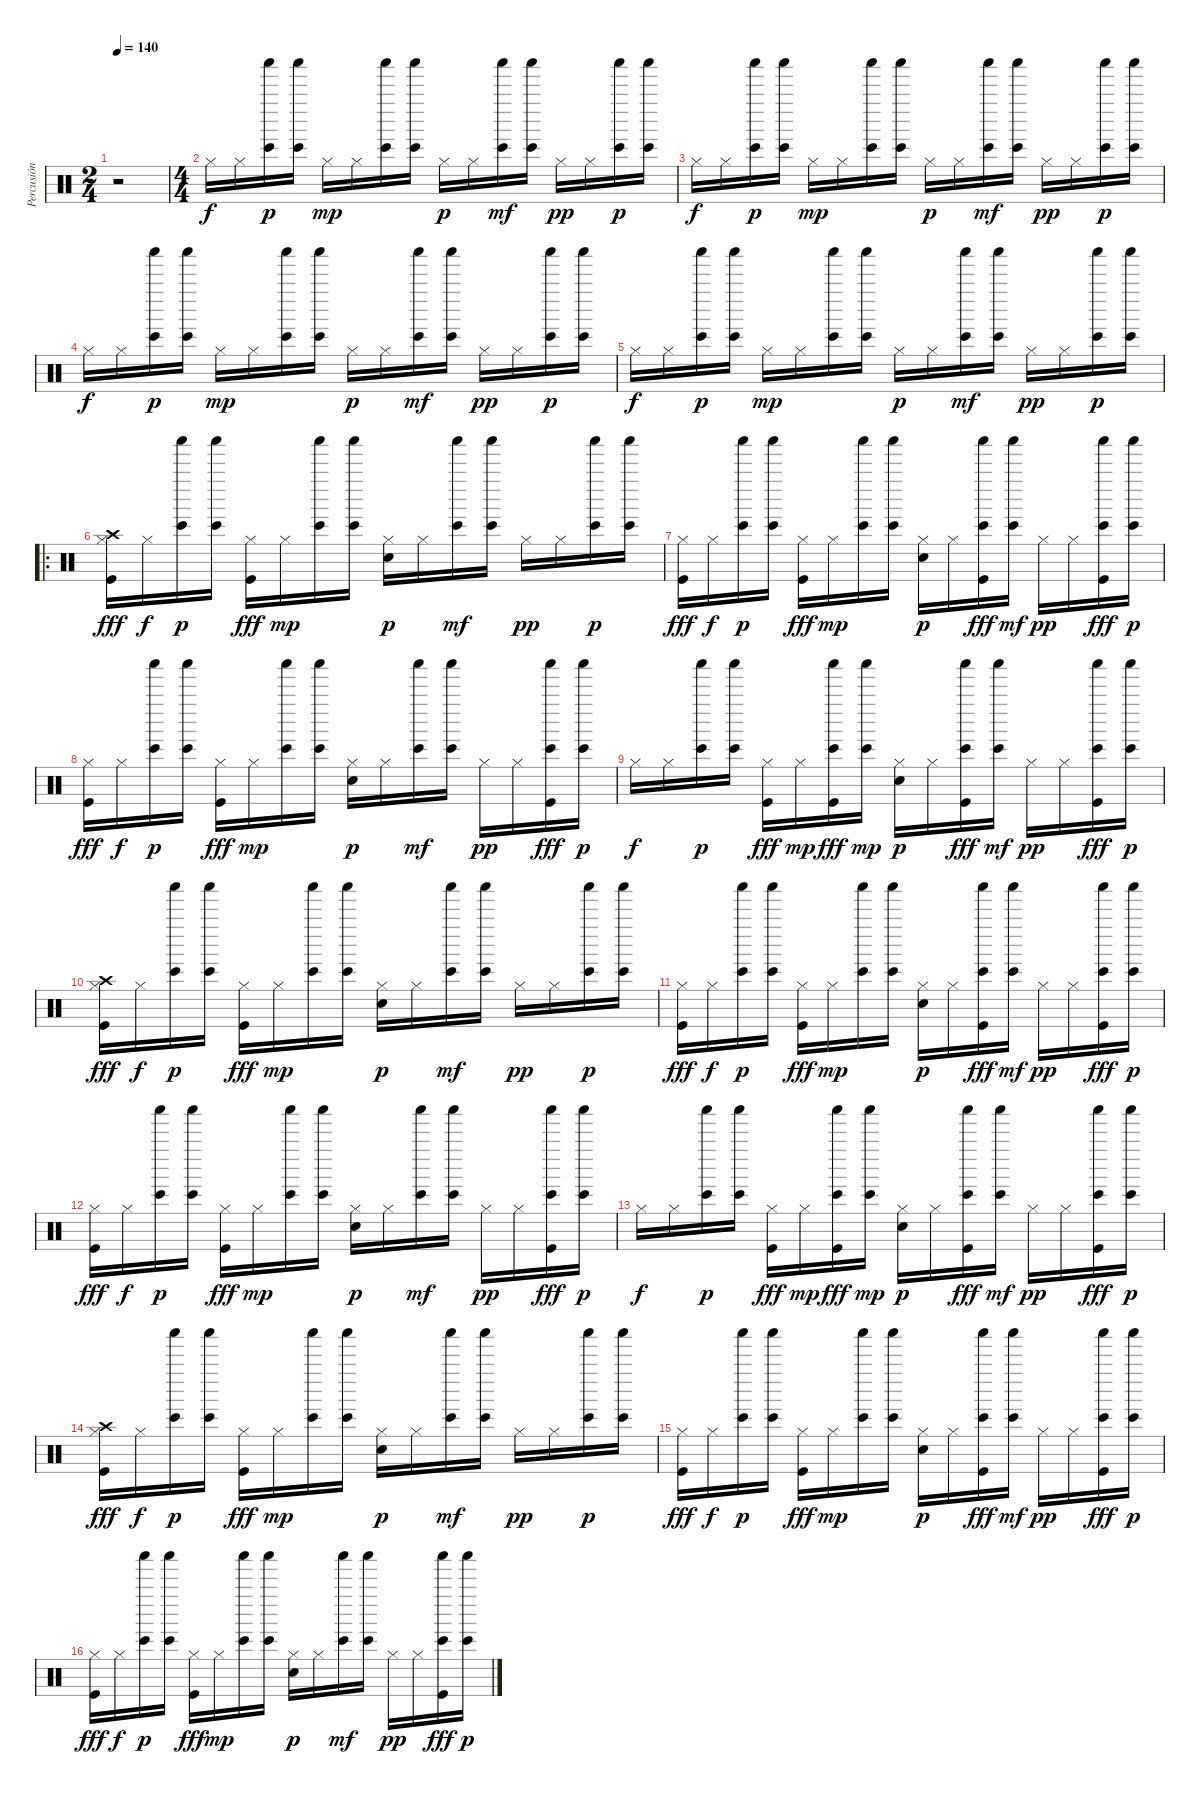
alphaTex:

\track ("Percusión" "Percusión") {instrument percussion}
\staff {score}
\articulation defaults
\ts (2 4)
\tempo 140
\clef neutral
\ks c
r.2{dy f} |
\ts (4 4)
"Hi-Hat (closed)".16{balance 8} "Hi-Hat (closed)".16 ("Bongo High (hit)" "Shaker (hit)").16{dy p balance 5} ("Bongo High (hit)" "Shaker (hit)").16 "Hi-Hat (closed)".16{dy mp balance 8} "Hi-Hat (closed)".16 ("Bongo High (hit)" "Shaker (hit)").16{balance 6} ("Bongo High (hit)" "Shaker (hit)").16 "Hi-Hat (closed)".16{dy p balance 8} "Hi-Hat (closed)".16 ("Bongo High (hit)" "Shaker (hit)").16{dy mf balance 10} ("Bongo High (hit)" "Shaker (hit)").16 "Hi-Hat (closed)".16{dy pp balance 8} "Hi-Hat (closed)".16 ("Bongo High (hit)" "Shaker (hit)").16{dy p balance 11} ("Bongo High (hit)" "Shaker (hit)").16 |
"Hi-Hat (closed)".16{dy f balance 8} "Hi-Hat (closed)".16 ("Bongo High (hit)" "Shaker (hit)").16{dy p balance 5} ("Bongo High (hit)" "Shaker (hit)").16 "Hi-Hat (closed)".16{dy mp balance 8} "Hi-Hat (closed)".16 ("Bongo High (hit)" "Shaker (hit)").16{balance 6} ("Bongo High (hit)" "Shaker (hit)").16 "Hi-Hat (closed)".16{dy p balance 8} "Hi-Hat (closed)".16 ("Bongo High (hit)" "Shaker (hit)").16{dy mf balance 10} ("Bongo High (hit)" "Shaker (hit)").16 "Hi-Hat (closed)".16{dy pp balance 8} "Hi-Hat (closed)".16 ("Bongo High (hit)" "Shaker (hit)").16{dy p balance 11} ("Bongo High (hit)" "Shaker (hit)").16 |
"Hi-Hat (closed)".16{dy f balance 8} "Hi-Hat (closed)".16 ("Bongo High (hit)" "Shaker (hit)").16{dy p balance 5} ("Bongo High (hit)" "Shaker (hit)").16 "Hi-Hat (closed)".16{dy mp balance 8} "Hi-Hat (closed)".16 ("Bongo High (hit)" "Shaker (hit)").16{balance 6} ("Bongo High (hit)" "Shaker (hit)").16 "Hi-Hat (closed)".16{dy p balance 8} "Hi-Hat (closed)".16 ("Bongo High (hit)" "Shaker (hit)").16{dy mf balance 10} ("Bongo High (hit)" "Shaker (hit)").16 "Hi-Hat (closed)".16{dy pp balance 8} "Hi-Hat (closed)".16 ("Bongo High (hit)" "Shaker (hit)").16{dy p balance 11} ("Bongo High (hit)" "Shaker (hit)").16 |
"Hi-Hat (closed)".16{dy f balance 8} "Hi-Hat (closed)".16 ("Bongo High (hit)" "Shaker (hit)").16{dy p balance 5} ("Bongo High (hit)" "Shaker (hit)").16 "Hi-Hat (closed)".16{dy mp balance 8} "Hi-Hat (closed)".16 ("Bongo High (hit)" "Shaker (hit)").16{balance 6} ("Bongo High (hit)" "Shaker (hit)").16 "Hi-Hat (closed)".16{dy p balance 8} "Hi-Hat (closed)".16 ("Bongo High (hit)" "Shaker (hit)").16{dy mf balance 10} ("Bongo High (hit)" "Shaker (hit)").16 "Hi-Hat (closed)".16{dy pp balance 8} "Hi-Hat (closed)".16 ("Bongo High (hit)" "Shaker (hit)").16{dy p balance 11} ("Bongo High (hit)" "Shaker (hit)").16 |
\ro
("Hi-Hat (closed)" "Crash high (hit)" "Kick (hit)").16{dy fff balance 8} "Hi-Hat (closed)".16{dy f} ("Bongo High (hit)" "Shaker (hit)").16{dy p balance 5} ("Bongo High (hit)" "Shaker (hit)").16 ("Hi-Hat (closed)" "Kick (hit)").16{dy fff balance 8} "Hi-Hat (closed)".16{dy mp} ("Bongo High (hit)" "Shaker (hit)").16{balance 6} ("Bongo High (hit)" "Shaker (hit)").16 ("Hi-Hat (closed)" "Electric Snare (hit)").16{dy p balance 8} "Hi-Hat (closed)".16 ("Bongo High (hit)" "Shaker (hit)").16{dy mf balance 10} ("Bongo High (hit)" "Shaker (hit)").16 "Hi-Hat (closed)".16{dy pp balance 8} "Hi-Hat (closed)".16 ("Bongo High (hit)" "Shaker (hit)").16{dy p balance 11} ("Bongo High (hit)" "Shaker (hit)").16 |
("Hi-Hat (closed)" "Kick (hit)").16{dy fff balance 8} "Hi-Hat (closed)".16{dy f} ("Bongo High (hit)" "Shaker (hit)").16{dy p balance 5} ("Bongo High (hit)" "Shaker (hit)").16 ("Hi-Hat (closed)" "Kick (hit)").16{dy fff balance 8} "Hi-Hat (closed)".16{dy mp} ("Bongo High (hit)" "Shaker (hit)").16{balance 6} ("Bongo High (hit)" "Shaker (hit)").16 ("Hi-Hat (closed)" "Electric Snare (hit)").16{dy p balance 8} "Hi-Hat (closed)".16 ("Bongo High (hit)" "Shaker (hit)" "Kick (hit)").16{dy fff balance 10} ("Bongo High (hit)" "Shaker (hit)").16{dy mf} "Hi-Hat (closed)".16{dy pp balance 8} "Hi-Hat (closed)".16 ("Bongo High (hit)" "Shaker (hit)" "Kick (hit)").16{dy fff balance 11} ("Bongo High (hit)" "Shaker (hit)").16{dy p} |
("Hi-Hat (closed)" "Kick (hit)").16{dy fff balance 8} "Hi-Hat (closed)".16{dy f} ("Bongo High (hit)" "Shaker (hit)").16{dy p balance 5} ("Bongo High (hit)" "Shaker (hit)").16 ("Hi-Hat (closed)" "Kick (hit)").16{dy fff balance 8} "Hi-Hat (closed)".16{dy mp} ("Bongo High (hit)" "Shaker (hit)").16{balance 6} ("Bongo High (hit)" "Shaker (hit)").16 ("Hi-Hat (closed)" "Electric Snare (hit)").16{dy p balance 8} "Hi-Hat (closed)".16 ("Bongo High (hit)" "Shaker (hit)").16{dy mf balance 10} ("Bongo High (hit)" "Shaker (hit)").16 "Hi-Hat (closed)".16{dy pp balance 8} "Hi-Hat (closed)".16 ("Bongo High (hit)" "Shaker (hit)" "Kick (hit)").16{dy fff balance 11} ("Bongo High (hit)" "Shaker (hit)").16{dy p} |
"Hi-Hat (closed)".16{dy f balance 8} "Hi-Hat (closed)".16 ("Bongo High (hit)" "Shaker (hit)").16{dy p balance 5} ("Bongo High (hit)" "Shaker (hit)").16 ("Hi-Hat (closed)" "Kick (hit)").16{dy fff balance 8} "Hi-Hat (closed)".16{dy mp} ("Bongo High (hit)" "Shaker (hit)" "Kick (hit)").16{dy fff balance 6} ("Bongo High (hit)" "Shaker (hit)").16{dy mp} ("Hi-Hat (closed)" "Electric Snare (hit)").16{dy p balance 8} "Hi-Hat (closed)".16 ("Bongo High (hit)" "Shaker (hit)" "Kick (hit)").16{dy fff balance 10} ("Bongo High (hit)" "Shaker (hit)").16{dy mf} "Hi-Hat (closed)".16{dy pp balance 8} "Hi-Hat (closed)".16 ("Bongo High (hit)" "Shaker (hit)" "Kick (hit)").16{dy fff balance 11} ("Bongo High (hit)" "Shaker (hit)").16{dy p} |
("Hi-Hat (closed)" "Crash high (hit)" "Kick (hit)").16{dy fff balance 8} "Hi-Hat (closed)".16{dy f} ("Bongo High (hit)" "Shaker (hit)").16{dy p balance 5} ("Bongo High (hit)" "Shaker (hit)").16 ("Hi-Hat (closed)" "Kick (hit)").16{dy fff balance 8} "Hi-Hat (closed)".16{dy mp} ("Bongo High (hit)" "Shaker (hit)").16{balance 6} ("Bongo High (hit)" "Shaker (hit)").16 ("Hi-Hat (closed)" "Electric Snare (hit)").16{dy p balance 8} "Hi-Hat (closed)".16 ("Bongo High (hit)" "Shaker (hit)").16{dy mf balance 10} ("Bongo High (hit)" "Shaker (hit)").16 "Hi-Hat (closed)".16{dy pp balance 8} "Hi-Hat (closed)".16 ("Bongo High (hit)" "Shaker (hit)").16{dy p balance 11} ("Bongo High (hit)" "Shaker (hit)").16 |
("Hi-Hat (closed)" "Kick (hit)").16{dy fff balance 8} "Hi-Hat (closed)".16{dy f} ("Bongo High (hit)" "Shaker (hit)").16{dy p balance 5} ("Bongo High (hit)" "Shaker (hit)").16 ("Hi-Hat (closed)" "Kick (hit)").16{dy fff balance 8} "Hi-Hat (closed)".16{dy mp} ("Bongo High (hit)" "Shaker (hit)").16{balance 6} ("Bongo High (hit)" "Shaker (hit)").16 ("Hi-Hat (closed)" "Electric Snare (hit)").16{dy p balance 8} "Hi-Hat (closed)".16 ("Bongo High (hit)" "Shaker (hit)" "Kick (hit)").16{dy fff balance 10} ("Bongo High (hit)" "Shaker (hit)").16{dy mf} "Hi-Hat (closed)".16{dy pp balance 8} "Hi-Hat (closed)".16 ("Bongo High (hit)" "Shaker (hit)" "Kick (hit)").16{dy fff balance 11} ("Bongo High (hit)" "Shaker (hit)").16{dy p} |
("Hi-Hat (closed)" "Kick (hit)").16{dy fff balance 8} "Hi-Hat (closed)".16{dy f} ("Bongo High (hit)" "Shaker (hit)").16{dy p balance 5} ("Bongo High (hit)" "Shaker (hit)").16 ("Hi-Hat (closed)" "Kick (hit)").16{dy fff balance 8} "Hi-Hat (closed)".16{dy mp} ("Bongo High (hit)" "Shaker (hit)").16{balance 6} ("Bongo High (hit)" "Shaker (hit)").16 ("Hi-Hat (closed)" "Electric Snare (hit)").16{dy p balance 8} "Hi-Hat (closed)".16 ("Bongo High (hit)" "Shaker (hit)").16{dy mf balance 10} ("Bongo High (hit)" "Shaker (hit)").16 "Hi-Hat (closed)".16{dy pp balance 8} "Hi-Hat (closed)".16 ("Bongo High (hit)" "Shaker (hit)" "Kick (hit)").16{dy fff balance 11} ("Bongo High (hit)" "Shaker (hit)").16{dy p} |
"Hi-Hat (closed)".16{dy f balance 8} "Hi-Hat (closed)".16 ("Bongo High (hit)" "Shaker (hit)").16{dy p balance 5} ("Bongo High (hit)" "Shaker (hit)").16 ("Hi-Hat (closed)" "Kick (hit)").16{dy fff balance 8} "Hi-Hat (closed)".16{dy mp} ("Bongo High (hit)" "Shaker (hit)" "Kick (hit)").16{dy fff balance 6} ("Bongo High (hit)" "Shaker (hit)").16{dy mp} ("Hi-Hat (closed)" "Electric Snare (hit)").16{dy p balance 8} "Hi-Hat (closed)".16 ("Bongo High (hit)" "Shaker (hit)" "Kick (hit)").16{dy fff balance 10} ("Bongo High (hit)" "Shaker (hit)").16{dy mf} "Hi-Hat (closed)".16{dy pp balance 8} "Hi-Hat (closed)".16 ("Bongo High (hit)" "Shaker (hit)" "Kick (hit)").16{dy fff balance 11} ("Bongo High (hit)" "Shaker (hit)").16{dy p} |
("Hi-Hat (closed)" "Crash high (hit)" "Kick (hit)").16{dy fff balance 8} "Hi-Hat (closed)".16{dy f} ("Bongo High (hit)" "Shaker (hit)").16{dy p balance 5} ("Bongo High (hit)" "Shaker (hit)").16 ("Hi-Hat (closed)" "Kick (hit)").16{dy fff balance 8} "Hi-Hat (closed)".16{dy mp} ("Bongo High (hit)" "Shaker (hit)").16{balance 6} ("Bongo High (hit)" "Shaker (hit)").16 ("Hi-Hat (closed)" "Electric Snare (hit)").16{dy p balance 8} "Hi-Hat (closed)".16 ("Bongo High (hit)" "Shaker (hit)").16{dy mf balance 10} ("Bongo High (hit)" "Shaker (hit)").16 "Hi-Hat (closed)".16{dy pp balance 8} "Hi-Hat (closed)".16 ("Bongo High (hit)" "Shaker (hit)").16{dy p balance 11} ("Bongo High (hit)" "Shaker (hit)").16 |
("Hi-Hat (closed)" "Kick (hit)").16{dy fff balance 8} "Hi-Hat (closed)".16{dy f} ("Bongo High (hit)" "Shaker (hit)").16{dy p balance 5} ("Bongo High (hit)" "Shaker (hit)").16 ("Hi-Hat (closed)" "Kick (hit)").16{dy fff balance 8} "Hi-Hat (closed)".16{dy mp} ("Bongo High (hit)" "Shaker (hit)").16{balance 6} ("Bongo High (hit)" "Shaker (hit)").16 ("Hi-Hat (closed)" "Electric Snare (hit)").16{dy p balance 8} "Hi-Hat (closed)".16 ("Bongo High (hit)" "Shaker (hit)" "Kick (hit)").16{dy fff balance 10} ("Bongo High (hit)" "Shaker (hit)").16{dy mf} "Hi-Hat (closed)".16{dy pp balance 8} "Hi-Hat (closed)".16 ("Bongo High (hit)" "Shaker (hit)" "Kick (hit)").16{dy fff balance 11} ("Bongo High (hit)" "Shaker (hit)").16{dy p} |
("Hi-Hat (closed)" "Kick (hit)").16{dy fff balance 8} "Hi-Hat (closed)".16{dy f} ("Bongo High (hit)" "Shaker (hit)").16{dy p balance 5} ("Bongo High (hit)" "Shaker (hit)").16 ("Hi-Hat (closed)" "Kick (hit)").16{dy fff balance 8} "Hi-Hat (closed)".16{dy mp} ("Bongo High (hit)" "Shaker (hit)").16{balance 6} ("Bongo High (hit)" "Shaker (hit)").16 ("Hi-Hat (closed)" "Electric Snare (hit)").16{dy p balance 8} "Hi-Hat (closed)".16 ("Bongo High (hit)" "Shaker (hit)").16{dy mf balance 10} ("Bongo High (hit)" "Shaker (hit)").16 "Hi-Hat (closed)".16{dy pp balance 8} "Hi-Hat (closed)".16 ("Bongo High (hit)" "Shaker (hit)" "Kick (hit)").16{dy fff balance 11} ("Bongo High (hit)" "Shaker (hit)").16{dy p}
